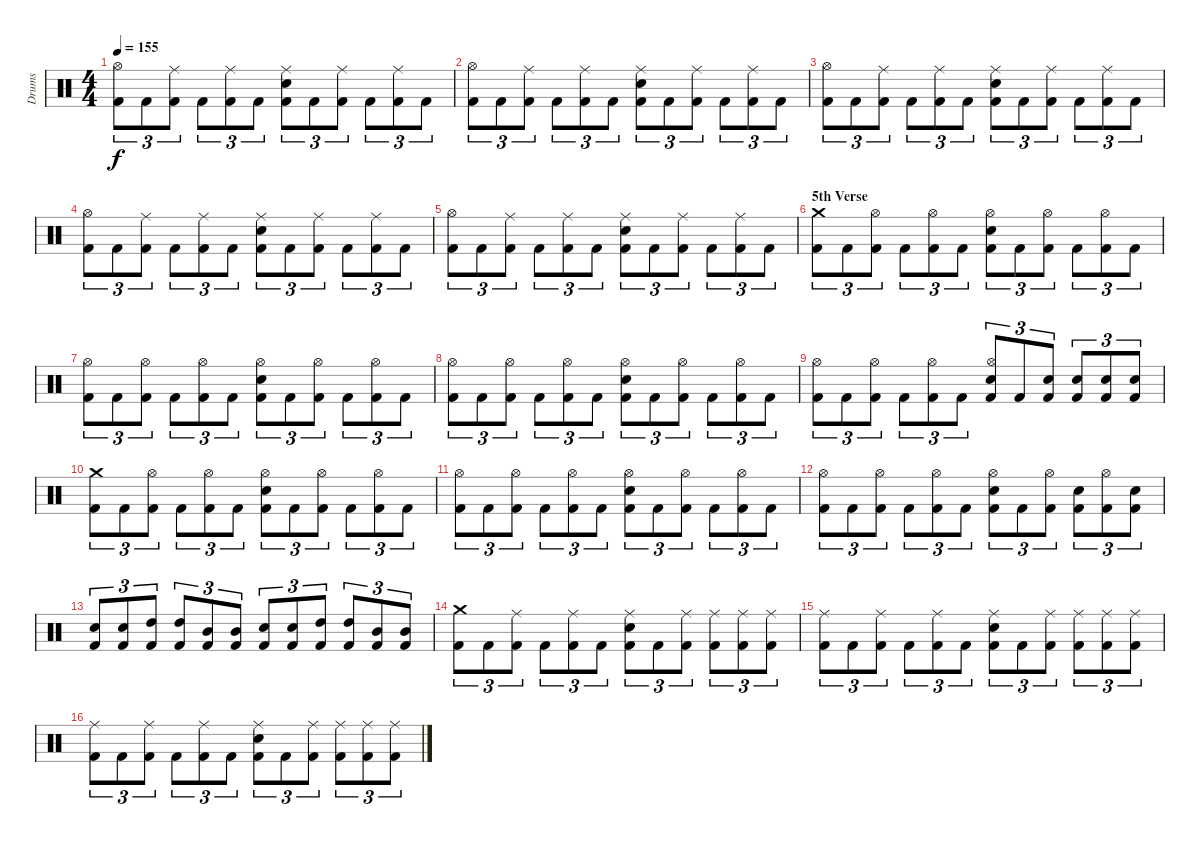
\track ("Drums" "Drums") {instrument percussion}
\staff {score}
\articulation defaults
\ts (4 4)
\tempo 155
\clef neutral
\ks c
("Kick (hit) 2" "Hi-Hat (open)").8{tu (3 2) dy f} "Kick (hit) 2".8{tu (3 2)} ("Kick (hit) 2" "Ride (middle)").8{tu (3 2)} "Kick (hit) 2".8{tu (3 2)} ("Kick (hit) 2" "Ride (middle)").8{tu (3 2)} "Kick (hit) 2".8{tu (3 2)} ("Kick (hit) 2" "Electric Snare (hit)" "Ride (middle)").8{tu (3 2)} "Kick (hit) 2".8{tu (3 2)} ("Kick (hit) 2" "Ride (middle)").8{tu (3 2)} "Kick (hit) 2".8{tu (3 2)} ("Kick (hit) 2" "Ride (middle)").8{tu (3 2)} "Kick (hit) 2".8{tu (3 2)} |
("Kick (hit) 2" "Hi-Hat (open)").8{tu (3 2)} "Kick (hit) 2".8{tu (3 2)} ("Kick (hit) 2" "Ride (middle)").8{tu (3 2)} "Kick (hit) 2".8{tu (3 2)} ("Kick (hit) 2" "Ride (middle)").8{tu (3 2)} "Kick (hit) 2".8{tu (3 2)} ("Kick (hit) 2" "Electric Snare (hit)" "Ride (middle)").8{tu (3 2)} "Kick (hit) 2".8{tu (3 2)} ("Kick (hit) 2" "Ride (middle)").8{tu (3 2)} "Kick (hit) 2".8{tu (3 2)} ("Kick (hit) 2" "Ride (middle)").8{tu (3 2)} "Kick (hit) 2".8{tu (3 2)} |
("Kick (hit) 2" "Hi-Hat (open)").8{tu (3 2)} "Kick (hit) 2".8{tu (3 2)} ("Kick (hit) 2" "Ride (middle)").8{tu (3 2)} "Kick (hit) 2".8{tu (3 2)} ("Kick (hit) 2" "Ride (middle)").8{tu (3 2)} "Kick (hit) 2".8{tu (3 2)} ("Kick (hit) 2" "Electric Snare (hit)" "Ride (middle)").8{tu (3 2)} "Kick (hit) 2".8{tu (3 2)} ("Kick (hit) 2" "Ride (middle)").8{tu (3 2)} "Kick (hit) 2".8{tu (3 2)} ("Kick (hit) 2" "Ride (middle)").8{tu (3 2)} "Kick (hit) 2".8{tu (3 2)} |
("Kick (hit) 2" "Hi-Hat (open)").8{tu (3 2)} "Kick (hit) 2".8{tu (3 2)} ("Kick (hit) 2" "Ride (middle)").8{tu (3 2)} "Kick (hit) 2".8{tu (3 2)} ("Kick (hit) 2" "Ride (middle)").8{tu (3 2)} "Kick (hit) 2".8{tu (3 2)} ("Kick (hit) 2" "Electric Snare (hit)" "Ride (middle)").8{tu (3 2)} "Kick (hit) 2".8{tu (3 2)} ("Kick (hit) 2" "Ride (middle)").8{tu (3 2)} "Kick (hit) 2".8{tu (3 2)} ("Kick (hit) 2" "Ride (middle)").8{tu (3 2)} "Kick (hit) 2".8{tu (3 2)} |
("Kick (hit) 2" "Hi-Hat (open)").8{tu (3 2)} "Kick (hit) 2".8{tu (3 2)} ("Kick (hit) 2" "Ride (middle)").8{tu (3 2)} "Kick (hit) 2".8{tu (3 2)} ("Kick (hit) 2" "Ride (middle)").8{tu (3 2)} "Kick (hit) 2".8{tu (3 2)} ("Kick (hit) 2" "Electric Snare (hit)" "Ride (middle)").8{tu (3 2)} "Kick (hit) 2".8{tu (3 2)} ("Kick (hit) 2" "Ride (middle)").8{tu (3 2)} "Kick (hit) 2".8{tu (3 2)} ("Kick (hit) 2" "Ride (middle)").8{tu (3 2)} "Kick (hit) 2".8{tu (3 2)} |
\section ("" "5th Verse")
("Kick (hit) 2" "Crash medium (hit)").8{tu (3 2)} "Kick (hit) 2".8{tu (3 2)} ("Kick (hit) 2" "Hi-Hat (open)").8{tu (3 2)} "Kick (hit) 2".8{tu (3 2)} ("Kick (hit) 2" "Hi-Hat (open)").8{tu (3 2)} "Kick (hit) 2".8{tu (3 2)} ("Kick (hit) 2" "Electric Snare (hit)" "Hi-Hat (open)").8{tu (3 2)} "Kick (hit) 2".8{tu (3 2)} ("Kick (hit) 2" "Hi-Hat (open)").8{tu (3 2)} "Kick (hit) 2".8{tu (3 2)} ("Kick (hit) 2" "Hi-Hat (open)").8{tu (3 2)} "Kick (hit) 2".8{tu (3 2)} |
("Kick (hit) 2" "Hi-Hat (open)").8{tu (3 2)} "Kick (hit) 2".8{tu (3 2)} ("Kick (hit) 2" "Hi-Hat (open)").8{tu (3 2)} "Kick (hit) 2".8{tu (3 2)} ("Kick (hit) 2" "Hi-Hat (open)").8{tu (3 2)} "Kick (hit) 2".8{tu (3 2)} ("Kick (hit) 2" "Electric Snare (hit)" "Hi-Hat (open)").8{tu (3 2)} "Kick (hit) 2".8{tu (3 2)} ("Kick (hit) 2" "Hi-Hat (open)").8{tu (3 2)} "Kick (hit) 2".8{tu (3 2)} ("Kick (hit) 2" "Hi-Hat (open)").8{tu (3 2)} "Kick (hit) 2".8{tu (3 2)} |
("Kick (hit) 2" "Hi-Hat (open)").8{tu (3 2)} "Kick (hit) 2".8{tu (3 2)} ("Kick (hit) 2" "Hi-Hat (open)").8{tu (3 2)} "Kick (hit) 2".8{tu (3 2)} ("Kick (hit) 2" "Hi-Hat (open)").8{tu (3 2)} "Kick (hit) 2".8{tu (3 2)} ("Kick (hit) 2" "Electric Snare (hit)" "Hi-Hat (open)").8{tu (3 2)} "Kick (hit) 2".8{tu (3 2)} ("Kick (hit) 2" "Hi-Hat (open)").8{tu (3 2)} "Kick (hit) 2".8{tu (3 2)} ("Kick (hit) 2" "Hi-Hat (open)").8{tu (3 2)} "Kick (hit) 2".8{tu (3 2)} |
("Kick (hit) 2" "Hi-Hat (open)").8{tu (3 2)} "Kick (hit) 2".8{tu (3 2)} ("Kick (hit) 2" "Hi-Hat (open)").8{tu (3 2)} "Kick (hit) 2".8{tu (3 2)} ("Kick (hit) 2" "Hi-Hat (open)").8{tu (3 2)} "Kick (hit) 2".8{tu (3 2)} ("Kick (hit) 2" "Electric Snare (hit)" "Hi-Hat (open)").8{tu (3 2)} "Kick (hit) 2".8{tu (3 2)} ("Kick (hit) 2" "Electric Snare (hit)").8{tu (3 2)} ("Kick (hit) 2" "Electric Snare (hit)").8{tu (3 2)} ("Kick (hit) 2" "Electric Snare (hit)").8{tu (3 2)} ("Kick (hit) 2" "Electric Snare (hit)").8{tu (3 2)} |
("Kick (hit) 2" "Crash medium (hit)").8{tu (3 2)} "Kick (hit) 2".8{tu (3 2)} ("Kick (hit) 2" "Hi-Hat (open)").8{tu (3 2)} "Kick (hit) 2".8{tu (3 2)} ("Kick (hit) 2" "Hi-Hat (open)").8{tu (3 2)} "Kick (hit) 2".8{tu (3 2)} ("Kick (hit) 2" "Electric Snare (hit)" "Hi-Hat (open)").8{tu (3 2)} "Kick (hit) 2".8{tu (3 2)} ("Kick (hit) 2" "Hi-Hat (open)").8{tu (3 2)} "Kick (hit) 2".8{tu (3 2)} ("Kick (hit) 2" "Hi-Hat (open)").8{tu (3 2)} "Kick (hit) 2".8{tu (3 2)} |
("Kick (hit) 2" "Hi-Hat (open)").8{tu (3 2)} "Kick (hit) 2".8{tu (3 2)} ("Kick (hit) 2" "Hi-Hat (open)").8{tu (3 2)} "Kick (hit) 2".8{tu (3 2)} ("Kick (hit) 2" "Hi-Hat (open)").8{tu (3 2)} "Kick (hit) 2".8{tu (3 2)} ("Kick (hit) 2" "Electric Snare (hit)" "Hi-Hat (open)").8{tu (3 2)} "Kick (hit) 2".8{tu (3 2)} ("Kick (hit) 2" "Hi-Hat (open)").8{tu (3 2)} "Kick (hit) 2".8{tu (3 2)} ("Kick (hit) 2" "Hi-Hat (open)").8{tu (3 2)} "Kick (hit) 2".8{tu (3 2)} |
("Kick (hit) 2" "Hi-Hat (open)").8{tu (3 2)} "Kick (hit) 2".8{tu (3 2)} ("Kick (hit) 2" "Hi-Hat (open)").8{tu (3 2)} "Kick (hit) 2".8{tu (3 2)} ("Kick (hit) 2" "Hi-Hat (open)").8{tu (3 2)} "Kick (hit) 2".8{tu (3 2)} ("Kick (hit) 2" "Electric Snare (hit)" "Hi-Hat (open)").8{tu (3 2)} "Kick (hit) 2".8{tu (3 2)} ("Kick (hit) 2" "Hi-Hat (open)").8{tu (3 2)} ("Kick (hit) 2" "Electric Snare (hit)").8{tu (3 2)} ("Kick (hit) 2" "Hi-Hat (open)").8{tu (3 2)} ("Kick (hit) 2" "Electric Snare (hit)").8{tu (3 2)} |
("Kick (hit) 2" "Electric Snare (hit)").8{tu (3 2)} ("Kick (hit) 2" "Electric Snare (hit)").8{tu (3 2)} ("Kick (hit) 2" "High Tom (hit)").8{tu (3 2)} ("Kick (hit) 2" "High Tom (hit)").8{tu (3 2)} ("Kick (hit) 2" "Mid Tom (hit)").8{tu (3 2)} ("Kick (hit) 2" "Mid Tom (hit)").8{tu (3 2)} ("Kick (hit) 2" "Electric Snare (hit)").8{tu (3 2)} ("Kick (hit) 2" "Electric Snare (hit)").8{tu (3 2)} ("Kick (hit) 2" "High Tom (hit)").8{tu (3 2)} ("Kick (hit) 2" "High Tom (hit)").8{tu (3 2)} ("Kick (hit) 2" "Mid Tom (hit)").8{tu (3 2)} ("Kick (hit) 2" "Mid Tom (hit)").8{tu (3 2)} |
("Kick (hit) 2" "Crash medium (hit)").8{tu (3 2)} "Kick (hit) 2".8{tu (3 2)} ("Kick (hit) 2" "Ride (middle)").8{tu (3 2)} "Kick (hit) 2".8{tu (3 2)} ("Kick (hit) 2" "Ride (middle)").8{tu (3 2)} "Kick (hit) 2".8{tu (3 2)} ("Kick (hit) 2" "Electric Snare (hit)" "Ride (middle)").8{tu (3 2)} "Kick (hit) 2".8{tu (3 2)} ("Kick (hit) 2" "Ride (middle)").8{tu (3 2)} ("Kick (hit) 2" "Ride (middle)").8{tu (3 2)} ("Kick (hit) 2" "Ride (middle)").8{tu (3 2)} ("Kick (hit) 2" "Ride (middle)").8{tu (3 2)} |
("Kick (hit) 2" "Ride (middle)").8{tu (3 2)} "Kick (hit) 2".8{tu (3 2)} ("Kick (hit) 2" "Ride (middle)").8{tu (3 2)} "Kick (hit) 2".8{tu (3 2)} ("Kick (hit) 2" "Ride (middle)").8{tu (3 2)} "Kick (hit) 2".8{tu (3 2)} ("Kick (hit) 2" "Electric Snare (hit)" "Ride (middle)").8{tu (3 2)} "Kick (hit) 2".8{tu (3 2)} ("Kick (hit) 2" "Ride (middle)").8{tu (3 2)} ("Kick (hit) 2" "Ride (middle)").8{tu (3 2)} ("Kick (hit) 2" "Ride (middle)").8{tu (3 2)} ("Kick (hit) 2" "Ride (middle)").8{tu (3 2)} |
("Kick (hit) 2" "Ride (middle)").8{tu (3 2)} "Kick (hit) 2".8{tu (3 2)} ("Kick (hit) 2" "Ride (middle)").8{tu (3 2)} "Kick (hit) 2".8{tu (3 2)} ("Kick (hit) 2" "Ride (middle)").8{tu (3 2)} "Kick (hit) 2".8{tu (3 2)} ("Kick (hit) 2" "Electric Snare (hit)" "Ride (middle)").8{tu (3 2)} "Kick (hit) 2".8{tu (3 2)} ("Kick (hit) 2" "Ride (middle)").8{tu (3 2)} ("Kick (hit) 2" "Ride (middle)").8{tu (3 2)} ("Kick (hit) 2" "Ride (middle)").8{tu (3 2)} ("Kick (hit) 2" "Ride (middle)").8{tu (3 2)}
